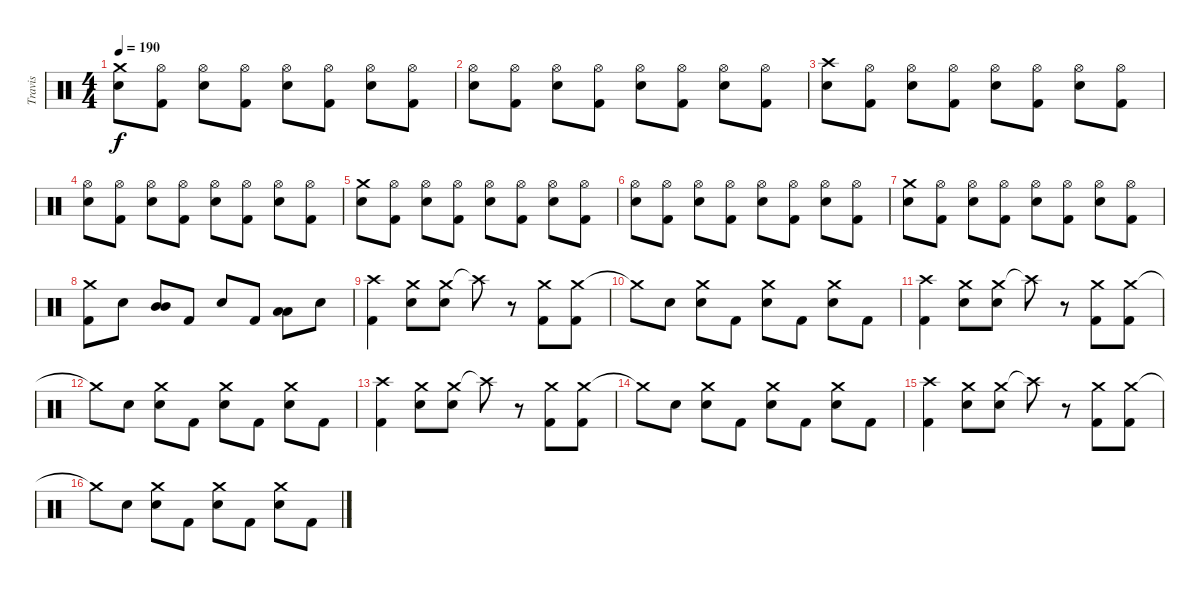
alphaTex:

\track ("Travis" "Travis") {instrument percussion}
\staff {score}
\articulation defaults
\ts (4 4)
\tempo 190
\clef neutral
\ks c
("Crash medium (hit)" "Electric Snare (hit)").8{dy f} ("Hi-Hat (open)" "Kick (hit) 2").8 ("Hi-Hat (open)" "Electric Snare (hit)").8 ("Hi-Hat (open)" "Kick (hit) 2").8 ("Hi-Hat (open)" "Electric Snare (hit)").8 ("Hi-Hat (open)" "Kick (hit) 2").8 ("Hi-Hat (open)" "Electric Snare (hit)").8 ("Hi-Hat (open)" "Kick (hit) 2").8 |
("Hi-Hat (open)" "Electric Snare (hit)").8 ("Hi-Hat (open)" "Kick (hit) 2").8 ("Hi-Hat (open)" "Electric Snare (hit)").8 ("Hi-Hat (open)" "Kick (hit) 2").8 ("Hi-Hat (open)" "Electric Snare (hit)").8 ("Hi-Hat (open)" "Kick (hit) 2").8 ("Hi-Hat (open)" "Electric Snare (hit)").8 ("Hi-Hat (open)" "Kick (hit) 2").8 |
("Crash high (hit)" "Electric Snare (hit)").8 ("Hi-Hat (open)" "Kick (hit) 2").8 ("Hi-Hat (open)" "Electric Snare (hit)").8 ("Hi-Hat (open)" "Kick (hit) 2").8 ("Hi-Hat (open)" "Electric Snare (hit)").8 ("Hi-Hat (open)" "Kick (hit) 2").8 ("Hi-Hat (open)" "Electric Snare (hit)").8 ("Hi-Hat (open)" "Kick (hit) 2").8 |
("Hi-Hat (open)" "Electric Snare (hit)").8 ("Hi-Hat (open)" "Kick (hit) 2").8 ("Hi-Hat (open)" "Electric Snare (hit)").8 ("Hi-Hat (open)" "Kick (hit) 2").8 ("Hi-Hat (open)" "Electric Snare (hit)").8 ("Hi-Hat (open)" "Kick (hit) 2").8 ("Hi-Hat (open)" "Electric Snare (hit)").8 ("Hi-Hat (open)" "Kick (hit) 2").8 |
("Crash medium (hit)" "Electric Snare (hit)").8 ("Hi-Hat (open)" "Kick (hit) 2").8 ("Hi-Hat (open)" "Electric Snare (hit)").8 ("Hi-Hat (open)" "Kick (hit) 2").8 ("Hi-Hat (open)" "Electric Snare (hit)").8 ("Hi-Hat (open)" "Kick (hit) 2").8 ("Hi-Hat (open)" "Electric Snare (hit)").8 ("Hi-Hat (open)" "Kick (hit) 2").8 |
("Hi-Hat (open)" "Electric Snare (hit)").8 ("Hi-Hat (open)" "Kick (hit) 2").8 ("Hi-Hat (open)" "Electric Snare (hit)").8 ("Hi-Hat (open)" "Kick (hit) 2").8 ("Hi-Hat (open)" "Electric Snare (hit)").8 ("Hi-Hat (open)" "Kick (hit) 2").8 ("Hi-Hat (open)" "Electric Snare (hit)").8 ("Hi-Hat (open)" "Kick (hit) 2").8 |
("Crash medium (hit)" "Electric Snare (hit)").8 ("Hi-Hat (open)" "Kick (hit) 2").8 ("Hi-Hat (open)" "Electric Snare (hit)").8 ("Hi-Hat (open)" "Kick (hit) 2").8 ("Hi-Hat (open)" "Electric Snare (hit)").8 ("Hi-Hat (open)" "Kick (hit) 2").8 ("Hi-Hat (open)" "Electric Snare (hit)").8 ("Hi-Hat (open)" "Kick (hit) 2").8 |
("Crash medium (hit)" "Kick (hit) 2").8 "Electric Snare (hit)".8 ("Mid Tom (hit)" "Mid Tom (hit)").8 "Kick (hit) 2".8 "Electric Snare (hit)".8 "Kick (hit) 2".8 ("Low Tom (hit)" "Low Tom (hit)").8 "Electric Snare (hit)".8 |
("Crash high (hit)" "Kick (hit) 2").4 ("Crash medium (hit)" "Electric Snare (hit)").8 ("Crash medium (hit)" "Electric Snare (hit)").8 "Crash high (hit)"{t}.8 r.8 ("Crash medium (hit)" "Kick (hit) 2").8 ("Crash medium (hit)" "Kick (hit) 2").8 |
"Crash medium (hit)"{t}.8 "Electric Snare (hit)".8 ("Crash medium (hit)" "Electric Snare (hit)").8 "Kick (hit) 2".8 ("Crash medium (hit)" "Electric Snare (hit)").8 "Kick (hit) 2".8 ("Crash medium (hit)" "Electric Snare (hit)").8 "Kick (hit) 2".8 |
("Crash high (hit)" "Kick (hit) 2").4 ("Crash medium (hit)" "Electric Snare (hit)").8 ("Crash medium (hit)" "Electric Snare (hit)").8 "Crash high (hit)"{t}.8 r.8 ("Crash medium (hit)" "Kick (hit) 2").8 ("Crash medium (hit)" "Kick (hit) 2").8 |
"Crash medium (hit)"{t}.8 "Electric Snare (hit)".8 ("Crash medium (hit)" "Electric Snare (hit)").8 "Kick (hit) 2".8 ("Crash medium (hit)" "Electric Snare (hit)").8 "Kick (hit) 2".8 ("Crash medium (hit)" "Electric Snare (hit)").8 "Kick (hit) 2".8 |
("Crash high (hit)" "Kick (hit) 2").4 ("Crash medium (hit)" "Electric Snare (hit)").8 ("Crash medium (hit)" "Electric Snare (hit)").8 "Crash high (hit)"{t}.8 r.8 ("Crash medium (hit)" "Kick (hit) 2").8 ("Crash medium (hit)" "Kick (hit) 2").8 |
"Crash medium (hit)"{t}.8 "Electric Snare (hit)".8 ("Crash medium (hit)" "Electric Snare (hit)").8 "Kick (hit) 2".8 ("Crash medium (hit)" "Electric Snare (hit)").8 "Kick (hit) 2".8 ("Crash medium (hit)" "Electric Snare (hit)").8 "Kick (hit) 2".8 |
("Crash high (hit)" "Kick (hit) 2").4 ("Crash medium (hit)" "Electric Snare (hit)").8 ("Crash medium (hit)" "Electric Snare (hit)").8 "Crash high (hit)"{t}.8 r.8 ("Crash medium (hit)" "Kick (hit) 2").8 ("Crash medium (hit)" "Kick (hit) 2").8 |
"Crash medium (hit)"{t}.8 "Electric Snare (hit)".8 ("Crash medium (hit)" "Electric Snare (hit)").8 "Kick (hit) 2".8 ("Crash medium (hit)" "Electric Snare (hit)").8 "Kick (hit) 2".8 ("Crash medium (hit)" "Electric Snare (hit)").8 "Kick (hit) 2".8
